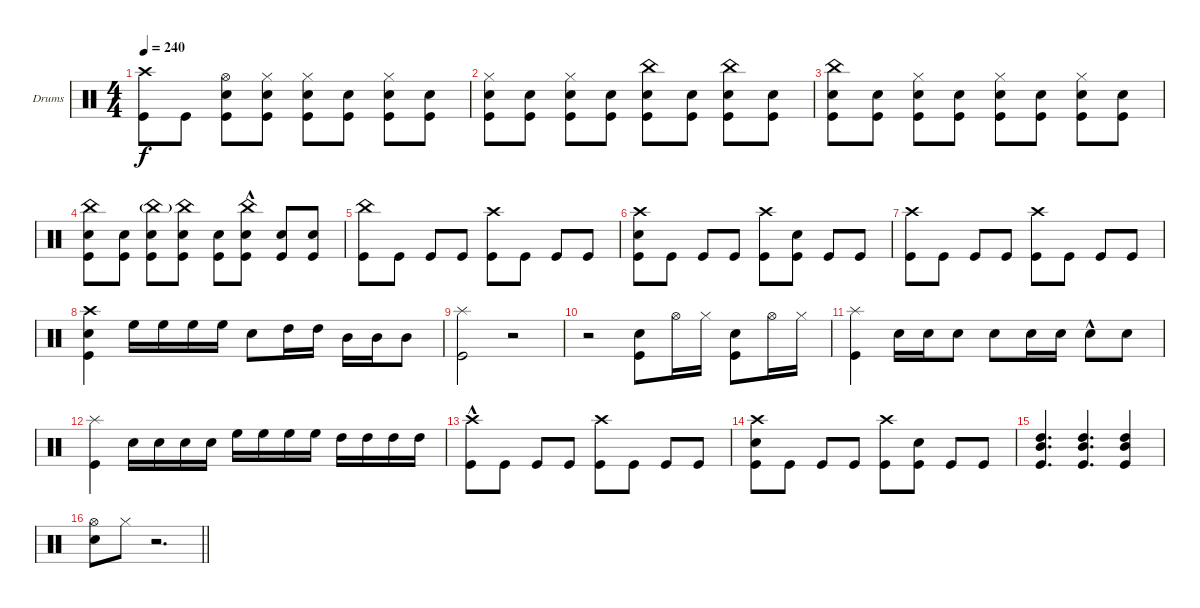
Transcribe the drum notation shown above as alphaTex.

\bracketExtendMode groupsimilarinstruments
\firstSystemTrackNameOrientation horizontal
\otherSystemsTrackNameOrientation horizontal
\track ("Drumkit" "Drums") {instrument percussion}
\staff {score}
\articulation defaults
\ts (4 4)
\tempo 240
\clef neutral
\ks c
("Crash high (hit)" "Kick (hit)").8{dy f} "Kick (hit)".8 ("Hi-Hat (open)" "Snare (hit) 2" "Kick (hit)").8 ("Hi-Hat (closed)" "Snare (hit) 2" "Kick (hit)").8 ("Hi-Hat (closed)" "Snare (hit) 2" "Kick (hit)").8 ("Snare (hit) 2" "Kick (hit)").8 ("Hi-Hat (closed)" "Snare (hit) 2" "Kick (hit)").8 ("Snare (hit) 2" "Kick (hit)").8 |
("Hi-Hat (closed)" "Snare (hit) 2" "Kick (hit)").8 ("Snare (hit) 2" "Kick (hit)").8 ("Hi-Hat (closed)" "Snare (hit) 2" "Kick (hit)").8 ("Snare (hit) 2" "Kick (hit)").8 ("China (hit)" "Snare (hit) 2" "Kick (hit)").8 ("Snare (hit) 2" "Kick (hit)").8 ("China (hit)" "Snare (hit) 2" "Kick (hit)").8 ("Snare (hit) 2" "Kick (hit)").8 |
("China (hit)" "Snare (hit) 2" "Kick (hit)").8 ("Snare (hit) 2" "Kick (hit)").8 ("Hi-Hat (closed)" "Snare (hit) 2" "Kick (hit)").8 ("Snare (hit) 2" "Kick (hit)").8 ("Hi-Hat (closed)" "Snare (hit) 2" "Kick (hit)").8 ("Snare (hit) 2" "Kick (hit)").8 ("Hi-Hat (closed)" "Snare (hit) 2" "Kick (hit)").8 ("Snare (hit) 2" "Kick (hit)").8 |
("China (hit)" "Snare (hit) 2" "Kick (hit)").8 ("Snare (hit) 2" "Kick (hit)").8 ("China (hit)"{g} "Snare (hit) 2" "Kick (hit)").8 ("China (hit)" "Snare (hit) 2" "Kick (hit)").8 ("Snare (hit) 2" "Kick (hit)").8 ("China (hit)"{hac} "Snare (hit) 2" "Kick (hit)").8 ("Snare (hit) 2" "Kick (hit)").8 ("Snare (hit) 2" "Kick (hit)").8 |
("China (hit)" "Kick (hit)").8 "Kick (hit)".8 "Kick (hit)".8 "Kick (hit)".8 ("Crash high (hit)" "Kick (hit)").8 "Kick (hit)".8 "Kick (hit)".8 "Kick (hit)".8 |
("Crash high (hit)" "Snare (hit) 2" "Kick (hit)").8 "Kick (hit)".8 "Kick (hit)".8 "Kick (hit)".8 ("Crash high (hit)" "Kick (hit)").8 ("Snare (hit) 2" "Kick (hit)").8 "Kick (hit)".8 "Kick (hit)".8 |
("Crash high (hit)" "Kick (hit)").8 "Kick (hit)".8 "Kick (hit)".8 "Kick (hit)".8 ("Crash high (hit)" "Kick (hit)").8 "Kick (hit)".8 "Kick (hit)".8 "Kick (hit)".8 |
("Crash high (hit)" "Snare (hit) 2" "Kick (hit)").4 "High Floor Tom (hit)".16 "High Floor Tom (hit)".16 "High Floor Tom (hit)".16 "High Floor Tom (hit)".16 "Snare (hit) 2".8 "High Tom (hit)".16 "High Tom (hit)".16 "Mid Tom (hit)".16 "Mid Tom (hit)".16 "Mid Tom (hit)".8 |
("Splash (hit)" "Kick (hit)").2 r.2 |
r.2 ("Snare (hit) 2" "Kick (hit)").8 "Hi-Hat (open)".16 "Hi-Hat (closed)".16 ("Snare (hit) 2" "Kick (hit)").8 "Hi-Hat (open)".16 "Hi-Hat (closed)".16 |
("Splash (hit)" "Kick (hit)").4 "Snare (hit) 2".16 "Snare (hit) 2".16 "Snare (hit) 2".8 "Snare (hit) 2".8 "Snare (hit) 2".16 "Snare (hit) 2".16 "Snare (hit) 2"{hac}.8 "Snare (hit) 2".8 |
("Splash (hit)" "Kick (hit)").4 "Snare (hit) 2".16 "Snare (hit) 2".16 "Snare (hit) 2".16 "Snare (hit) 2".16 "High Floor Tom (hit)".16 "High Floor Tom (hit)".16 "High Floor Tom (hit)".16 "High Floor Tom (hit)".16 "High Tom (hit)".16 "High Tom (hit)".16 "High Tom (hit)".16 "High Tom (hit)".16 |
("Crash high (hit)"{hac} "Kick (hit)").8 "Kick (hit)".8 "Kick (hit)".8 "Kick (hit)".8 ("Crash high (hit)" "Kick (hit)").8 "Kick (hit)".8 "Kick (hit)".8 "Kick (hit)".8 |
("Crash high (hit)" "Snare (hit) 2" "Kick (hit)").8 "Kick (hit)".8 "Kick (hit)".8 "Kick (hit)".8 ("Crash high (hit)" "Kick (hit)").8 ("Snare (hit) 2" "Kick (hit)").8 "Kick (hit)".8 "Kick (hit)".8 |
("High Tom (hit)" "Mid Tom (hit)" "Kick (hit)").4{d} ("High Tom (hit)" "Mid Tom (hit)" "Kick (hit)").4{d} ("High Tom (hit)" "Mid Tom (hit)" "Kick (hit)").4 |
\barLineRight lightlight
("Hi-Hat (open)" "Snare (hit) 2").8 "Hi-Hat (closed)".8 r.2{d}
